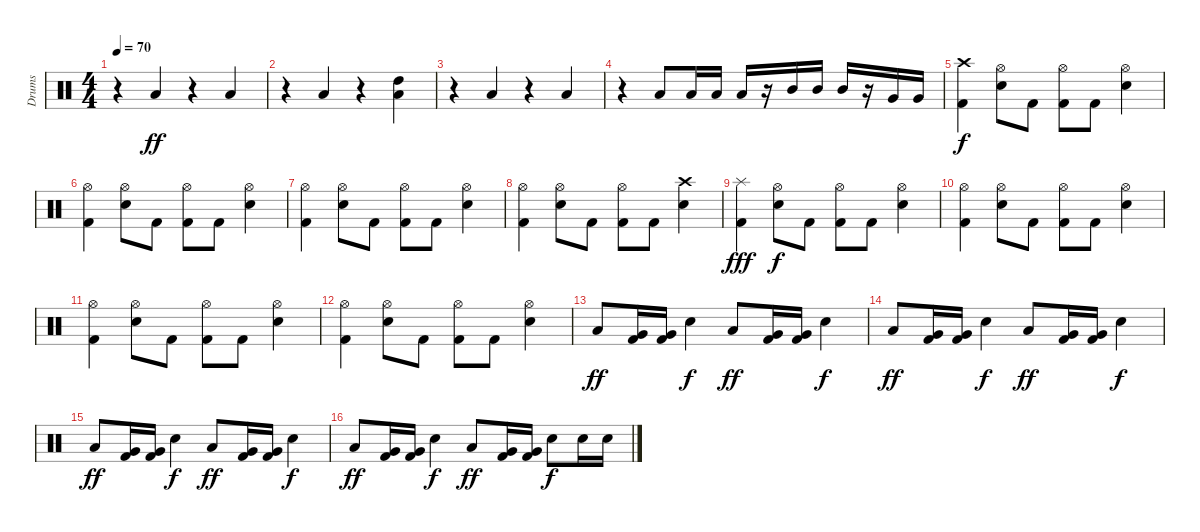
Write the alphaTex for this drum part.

\track ("Drums" "Drums") {instrument percussion}
\staff {score}
\articulation defaults
\ts (4 4)
\tempo 70
\clef neutral
\ks c
r.4{dy ff} "Low Tom (hit)".4 r.4 "Low Tom (hit)".4 |
r.4 "Low Tom (hit)".4 r.4 ("Low Tom (hit)" "High Tom (hit)").4 |
r.4 "Low Tom (hit)".4 r.4 "Low Tom (hit)".4 |
r.4 "Low Tom (hit)".8 "Low Tom (hit)".16 "Low Tom (hit)".16 "Low Tom (hit)".16 r.16 "Mid Tom (hit)".16 "Mid Tom (hit)".16 "Mid Tom (hit)".16 r.16 "Very Low Tom (hit)".16 "Very Low Tom (hit)".16 |
("Kick (hit) 2" "Crash high (hit)").4{dy f} ("Electric Snare (hit)" "Hi-Hat (open)").8 "Kick (hit) 2".8 ("Kick (hit) 2" "Hi-Hat (open)").8 "Kick (hit) 2".8 ("Electric Snare (hit)" "Hi-Hat (open)").4 |
("Kick (hit) 2" "Hi-Hat (open)").4 ("Electric Snare (hit)" "Hi-Hat (open)").8 "Kick (hit) 2".8 ("Kick (hit) 2" "Hi-Hat (open)").8 "Kick (hit) 2".8 ("Electric Snare (hit)" "Hi-Hat (open)").4 |
("Kick (hit) 2" "Hi-Hat (open)").4 ("Electric Snare (hit)" "Hi-Hat (open)").8 "Kick (hit) 2".8 ("Kick (hit) 2" "Hi-Hat (open)").8 "Kick (hit) 2".8 ("Electric Snare (hit)" "Hi-Hat (open)").4 |
("Kick (hit) 2" "Hi-Hat (open)").4 ("Electric Snare (hit)" "Hi-Hat (open)").8 "Kick (hit) 2".8 ("Kick (hit) 2" "Hi-Hat (open)").8 "Kick (hit) 2".8 ("Electric Snare (hit)" "Crash high (hit)").4 |
("Kick (hit) 2" "Splash (hit)").4{dy fff} ("Electric Snare (hit)" "Hi-Hat (open)").8{dy f} "Kick (hit) 2".8 ("Kick (hit) 2" "Hi-Hat (open)").8 "Kick (hit) 2".8 ("Electric Snare (hit)" "Hi-Hat (open)").4 |
("Kick (hit) 2" "Hi-Hat (open)").4 ("Electric Snare (hit)" "Hi-Hat (open)").8 "Kick (hit) 2".8 ("Kick (hit) 2" "Hi-Hat (open)").8 "Kick (hit) 2".8 ("Electric Snare (hit)" "Hi-Hat (open)").4 |
("Kick (hit) 2" "Hi-Hat (open)").4 ("Electric Snare (hit)" "Hi-Hat (open)").8 "Kick (hit) 2".8 ("Kick (hit) 2" "Hi-Hat (open)").8 "Kick (hit) 2".8 ("Electric Snare (hit)" "Hi-Hat (open)").4 |
("Kick (hit) 2" "Hi-Hat (open)").4 ("Electric Snare (hit)" "Hi-Hat (open)").8 "Kick (hit) 2".8 ("Kick (hit) 2" "Hi-Hat (open)").8 "Kick (hit) 2".8 ("Electric Snare (hit)" "Hi-Hat (open)").4 |
"Low Tom (hit)".8{dy ff} ("Kick (hit) 2" "Very Low Tom (hit)").16 ("Kick (hit) 2" "Very Low Tom (hit)").16 "Electric Snare (hit)".4{dy f} "Low Tom (hit)".8{dy ff} ("Kick (hit) 2" "Very Low Tom (hit)").16 ("Kick (hit) 2" "Very Low Tom (hit)").16 "Electric Snare (hit)".4{dy f} |
"Low Tom (hit)".8{dy ff} ("Kick (hit) 2" "Very Low Tom (hit)").16 ("Kick (hit) 2" "Very Low Tom (hit)").16 "Electric Snare (hit)".4{dy f} "Low Tom (hit)".8{dy ff} ("Kick (hit) 2" "Very Low Tom (hit)").16 ("Kick (hit) 2" "Very Low Tom (hit)").16 "Electric Snare (hit)".4{dy f} |
"Low Tom (hit)".8{dy ff} ("Kick (hit) 2" "Very Low Tom (hit)").16 ("Kick (hit) 2" "Very Low Tom (hit)").16 "Electric Snare (hit)".4{dy f} "Low Tom (hit)".8{dy ff} ("Kick (hit) 2" "Very Low Tom (hit)").16 ("Kick (hit) 2" "Very Low Tom (hit)").16 "Electric Snare (hit)".4{dy f} |
"Low Tom (hit)".8{dy ff} ("Kick (hit) 2" "Very Low Tom (hit)").16 ("Kick (hit) 2" "Very Low Tom (hit)").16 "Electric Snare (hit)".4{dy f} "Low Tom (hit)".8{dy ff} ("Kick (hit) 2" "Very Low Tom (hit)").16 ("Kick (hit) 2" "Very Low Tom (hit)").16 "Electric Snare (hit)".8{dy f} "Electric Snare (hit)".16 "Electric Snare (hit)".16
